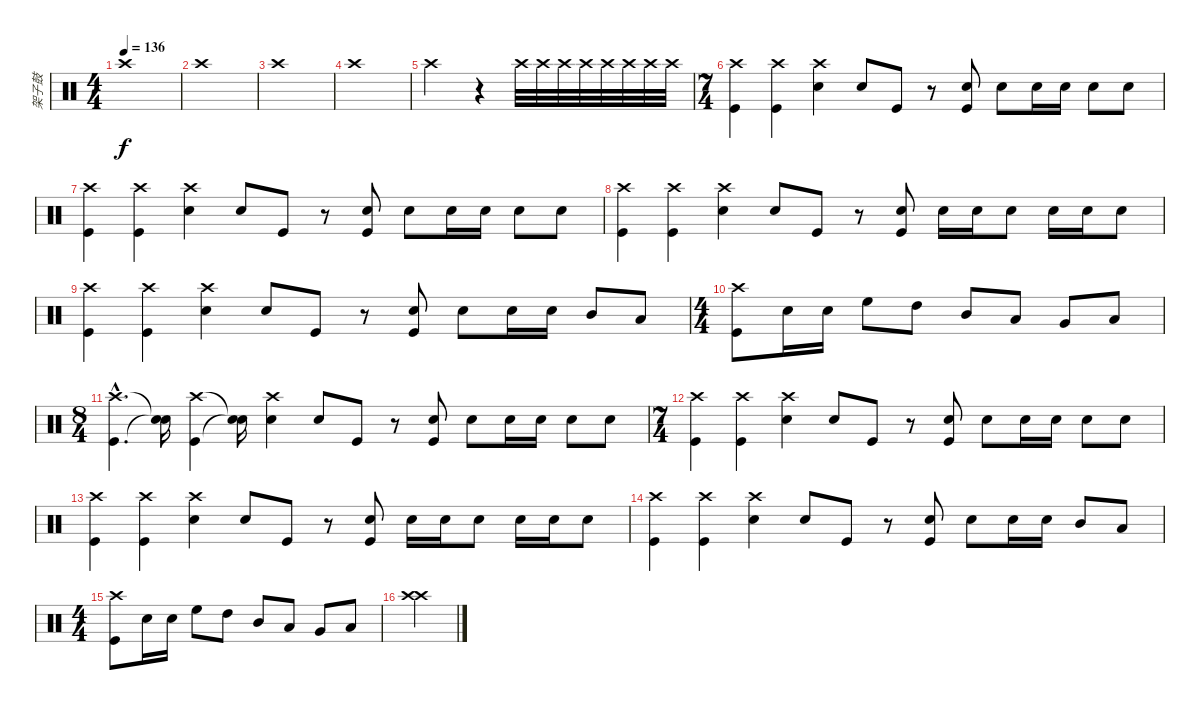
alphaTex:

\track ("架子鼓" "架子鼓") {instrument percussion}
\staff {score}
\articulation defaults
\ts (4 4)
\tempo 136
\clef neutral
\ks c "Crash high (hit)".1{dy f}
|
"Crash high (hit)".1 |
"Crash high (hit)".1 |
"Crash high (hit)".1 |
"Crash high (hit)".2 r.4 "Crash high (hit)".32 "Crash high (hit)".32 "Crash high (hit)".32 "Crash high (hit)".32 "Crash high (hit)".32 "Crash high (hit)".32 "Crash high (hit)".32 "Crash high (hit)".32 |
\ts (7 4)
("Crash high (hit)" "Kick (hit)").4 ("Crash high (hit)" "Kick (hit)").4 ("Crash high (hit)" "Snare (hit) 2").4 "Snare (hit) 2".8 "Kick (hit)".8 r.8 ("Snare (hit) 2" "Kick (hit)").8 "Snare (hit) 2".8 "Snare (hit) 2".16 "Snare (hit) 2".16 "Snare (hit) 2".8 "Snare (hit) 2".8 |
("Crash high (hit)" "Kick (hit)").4 ("Crash high (hit)" "Kick (hit)").4 ("Crash high (hit)" "Snare (hit) 2").4 "Snare (hit) 2".8 "Kick (hit)".8 r.8 ("Snare (hit) 2" "Kick (hit)").8 "Snare (hit) 2".8 "Snare (hit) 2".16 "Snare (hit) 2".16 "Snare (hit) 2".8 "Snare (hit) 2".8 |
("Crash high (hit)" "Kick (hit)").4 ("Crash high (hit)" "Kick (hit)").4 ("Crash high (hit)" "Snare (hit) 2").4 "Snare (hit) 2".8 "Kick (hit)".8 r.8 ("Snare (hit) 2" "Kick (hit)").8 "Snare (hit) 2".16 "Snare (hit) 2".16 "Snare (hit) 2".8 "Snare (hit) 2".16 "Snare (hit) 2".16 "Snare (hit) 2".8 |
("Crash high (hit)" "Kick (hit)").4 ("Crash high (hit)" "Kick (hit)").4 ("Crash high (hit)" "Snare (hit) 2").4 "Snare (hit) 2".8 "Kick (hit)".8 r.8 ("Snare (hit) 2" "Kick (hit)").8 "Snare (hit) 2".8 "Snare (hit) 2".16 "Snare (hit) 2".16 "Mid Tom (hit)".8 "Low Tom (hit)".8 |
\ts (4 4)
("Crash high (hit)" "Kick (hit)").8 "Snare (hit) 2".16 "Snare (hit) 2".16 "High Floor Tom (hit)".8 "High Tom (hit)".8 "Mid Tom (hit)".8 "Low Tom (hit)".8 "Very Low Tom (hit)".8 "Low Floor Tom (hit)".8 |
\ts (8 4)
("Crash high (hit)"{hac} "Kick (hit)"{hac}).4{d} ("Snare (hit)"{t} "Snare (hit)"{t}).16 ("Crash high (hit)" "Kick (hit)").4 ("Snare (hit)"{t} "Snare (hit)"{t}).16 ("Crash high (hit)" "Snare (hit) 2").4 "Snare (hit) 2".8 "Kick (hit)".8 r.8 ("Snare (hit) 2" "Kick (hit)").8 "Snare (hit) 2".8 "Snare (hit) 2".16 "Snare (hit) 2".16 "Snare (hit) 2".8 "Snare (hit) 2".8 |
\ts (7 4)
("Crash high (hit)" "Kick (hit)").4 ("Crash high (hit)" "Kick (hit)").4 ("Crash high (hit)" "Snare (hit) 2").4 "Snare (hit) 2".8 "Kick (hit)".8 r.8 ("Snare (hit) 2" "Kick (hit)").8 "Snare (hit) 2".8 "Snare (hit) 2".16 "Snare (hit) 2".16 "Snare (hit) 2".8 "Snare (hit) 2".8 |
("Crash high (hit)" "Kick (hit)").4 ("Crash high (hit)" "Kick (hit)").4 ("Crash high (hit)" "Snare (hit) 2").4 "Snare (hit) 2".8 "Kick (hit)".8 r.8 ("Snare (hit) 2" "Kick (hit)").8 "Snare (hit) 2".16 "Snare (hit) 2".16 "Snare (hit) 2".8 "Snare (hit) 2".16 "Snare (hit) 2".16 "Snare (hit) 2".8 |
("Crash high (hit)" "Kick (hit)").4 ("Crash high (hit)" "Kick (hit)").4 ("Crash high (hit)" "Snare (hit) 2").4 "Snare (hit) 2".8 "Kick (hit)".8 r.8 ("Snare (hit) 2" "Kick (hit)").8 "Snare (hit) 2".8 "Snare (hit) 2".16 "Snare (hit) 2".16 "Mid Tom (hit)".8 "Low Tom (hit)".8 |
\ts (4 4)
("Crash high (hit)" "Kick (hit)").8 "Snare (hit) 2".16 "Snare (hit) 2".16 "High Floor Tom (hit)".8 "High Tom (hit)".8 "Mid Tom (hit)".8 "Low Tom (hit)".8 "Very Low Tom (hit)".8 "Low Floor Tom (hit)".8 |
("Crash high (hit)" "Crash high (hit)").4
